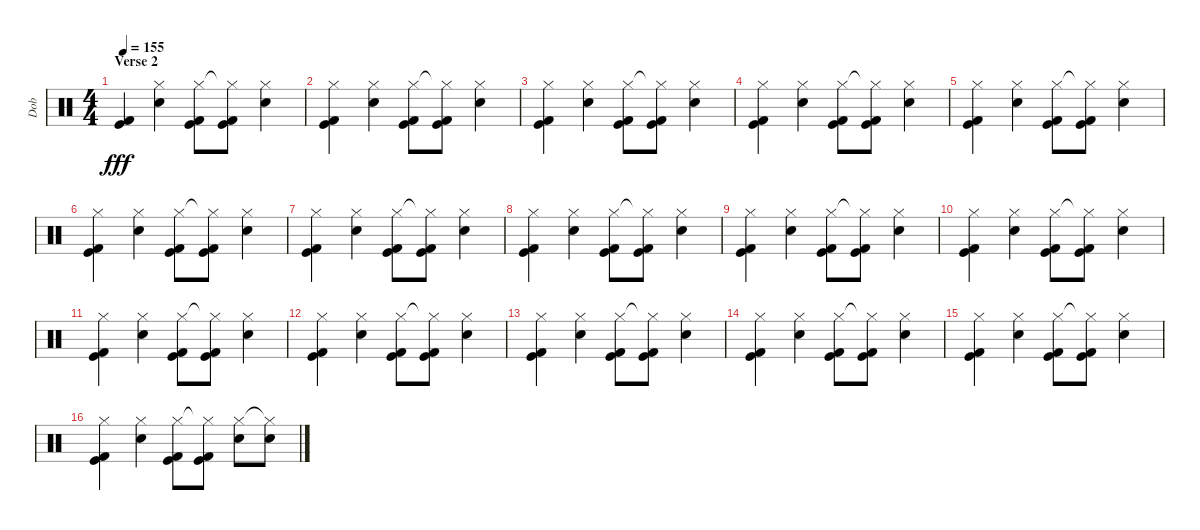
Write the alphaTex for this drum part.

\track ("Dob" "Dob") {instrument percussion}
\staff {score}
\articulation defaults
\ts (4 4)
\section ("" "Verse 2")
\tempo 155
\clef neutral
\ks c
("Kick (hit) 2" "Kick (hit)").4{dy fff} ("Hi-Hat (closed)" "Electric Snare (hit)").4 ("Hi-Hat (closed)" "Kick (hit) 2" "Kick (hit)").8 ("Hi-Hat (closed)"{t} "Kick (hit) 2" "Kick (hit)").8 ("Hi-Hat (closed)" "Electric Snare (hit)").4 |
("Hi-Hat (closed)" "Kick (hit) 2" "Kick (hit)").4 ("Hi-Hat (closed)" "Electric Snare (hit)").4 ("Hi-Hat (closed)" "Kick (hit) 2" "Kick (hit)").8 ("Hi-Hat (closed)"{t} "Kick (hit) 2" "Kick (hit)").8 ("Hi-Hat (closed)" "Electric Snare (hit)").4 |
("Hi-Hat (closed)" "Kick (hit) 2" "Kick (hit)").4 ("Hi-Hat (closed)" "Electric Snare (hit)").4 ("Hi-Hat (closed)" "Kick (hit) 2" "Kick (hit)").8 ("Hi-Hat (closed)"{t} "Kick (hit) 2" "Kick (hit)").8 ("Hi-Hat (closed)" "Electric Snare (hit)").4 |
("Hi-Hat (closed)" "Kick (hit) 2" "Kick (hit)").4 ("Hi-Hat (closed)" "Electric Snare (hit)").4 ("Hi-Hat (closed)" "Kick (hit) 2" "Kick (hit)").8 ("Hi-Hat (closed)"{t} "Kick (hit) 2" "Kick (hit)").8 ("Hi-Hat (closed)" "Electric Snare (hit)").4 |
("Hi-Hat (closed)" "Kick (hit) 2" "Kick (hit)").4 ("Hi-Hat (closed)" "Electric Snare (hit)").4 ("Hi-Hat (closed)" "Kick (hit) 2" "Kick (hit)").8 ("Hi-Hat (closed)"{t} "Kick (hit) 2" "Kick (hit)").8 ("Hi-Hat (closed)" "Electric Snare (hit)").4 |
("Hi-Hat (closed)" "Kick (hit) 2" "Kick (hit)").4 ("Hi-Hat (closed)" "Electric Snare (hit)").4 ("Hi-Hat (closed)" "Kick (hit) 2" "Kick (hit)").8 ("Hi-Hat (closed)"{t} "Kick (hit) 2" "Kick (hit)").8 ("Hi-Hat (closed)" "Electric Snare (hit)").4 |
("Hi-Hat (closed)" "Kick (hit) 2" "Kick (hit)").4 ("Hi-Hat (closed)" "Electric Snare (hit)").4 ("Hi-Hat (closed)" "Kick (hit) 2" "Kick (hit)").8 ("Hi-Hat (closed)"{t} "Kick (hit) 2" "Kick (hit)").8 ("Hi-Hat (closed)" "Electric Snare (hit)").4 |
("Hi-Hat (closed)" "Kick (hit) 2" "Kick (hit)").4 ("Hi-Hat (closed)" "Electric Snare (hit)").4 ("Hi-Hat (closed)" "Kick (hit) 2" "Kick (hit)").8 ("Hi-Hat (closed)"{t} "Kick (hit) 2" "Kick (hit)").8 ("Hi-Hat (closed)" "Electric Snare (hit)").4 |
("Hi-Hat (closed)" "Kick (hit) 2" "Kick (hit)").4 ("Hi-Hat (closed)" "Electric Snare (hit)").4 ("Hi-Hat (closed)" "Kick (hit) 2" "Kick (hit)").8 ("Hi-Hat (closed)"{t} "Kick (hit) 2" "Kick (hit)").8 ("Hi-Hat (closed)" "Electric Snare (hit)").4 |
("Hi-Hat (closed)" "Kick (hit) 2" "Kick (hit)").4 ("Hi-Hat (closed)" "Electric Snare (hit)").4 ("Hi-Hat (closed)" "Kick (hit) 2" "Kick (hit)").8 ("Hi-Hat (closed)"{t} "Kick (hit) 2" "Kick (hit)").8 ("Hi-Hat (closed)" "Electric Snare (hit)").4 |
("Hi-Hat (closed)" "Kick (hit) 2" "Kick (hit)").4 ("Hi-Hat (closed)" "Electric Snare (hit)").4 ("Hi-Hat (closed)" "Kick (hit) 2" "Kick (hit)").8 ("Hi-Hat (closed)"{t} "Kick (hit) 2" "Kick (hit)").8 ("Hi-Hat (closed)" "Electric Snare (hit)").4 |
("Hi-Hat (closed)" "Kick (hit) 2" "Kick (hit)").4 ("Hi-Hat (closed)" "Electric Snare (hit)").4 ("Hi-Hat (closed)" "Kick (hit) 2" "Kick (hit)").8 ("Hi-Hat (closed)"{t} "Kick (hit) 2" "Kick (hit)").8 ("Hi-Hat (closed)" "Electric Snare (hit)").4 |
("Hi-Hat (closed)" "Kick (hit) 2" "Kick (hit)").4 ("Hi-Hat (closed)" "Electric Snare (hit)").4 ("Hi-Hat (closed)" "Kick (hit) 2" "Kick (hit)").8 ("Hi-Hat (closed)"{t} "Kick (hit) 2" "Kick (hit)").8 ("Hi-Hat (closed)" "Electric Snare (hit)").4 |
("Hi-Hat (closed)" "Kick (hit) 2" "Kick (hit)").4 ("Hi-Hat (closed)" "Electric Snare (hit)").4 ("Hi-Hat (closed)" "Kick (hit) 2" "Kick (hit)").8 ("Hi-Hat (closed)"{t} "Kick (hit) 2" "Kick (hit)").8 ("Hi-Hat (closed)" "Electric Snare (hit)").4 |
("Hi-Hat (closed)" "Kick (hit) 2" "Kick (hit)").4 ("Hi-Hat (closed)" "Electric Snare (hit)").4 ("Hi-Hat (closed)" "Kick (hit) 2" "Kick (hit)").8 ("Hi-Hat (closed)"{t} "Kick (hit) 2" "Kick (hit)").8 ("Hi-Hat (closed)" "Electric Snare (hit)").4 |
("Hi-Hat (closed)" "Kick (hit) 2" "Kick (hit)").4 ("Hi-Hat (closed)" "Electric Snare (hit)").4 ("Hi-Hat (closed)" "Kick (hit) 2" "Kick (hit)").8 ("Hi-Hat (closed)"{t} "Kick (hit) 2" "Kick (hit)").8 ("Hi-Hat (closed)" "Electric Snare (hit)").8 ("Hi-Hat (closed)"{t} "Electric Snare (hit)").8
